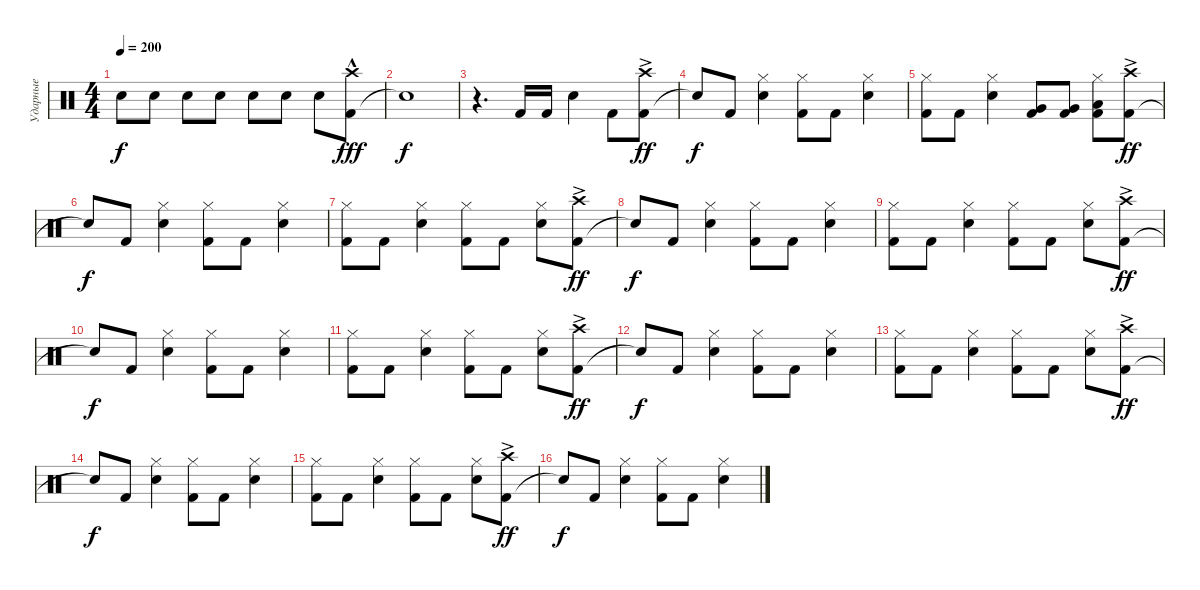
\track ("Ударные" "Ударные") {instrument percussion}
\staff {score}
\articulation defaults
\ts (4 4)
\tempo 200
\clef neutral
\ks c "Snare (hit) 2".8{dy f} "Snare (hit) 2".8 "Snare (hit) 2".8 "Snare (hit) 2".8 "Snare (hit) 2".8 "Snare (hit) 2".8 "Snare (hit) 2".8
("Kick (hit) 2" "Crash high (hit)"{hac}).8{dy fff} |
"Snare (hit)"{t}.1{dy f} |
r.4{d} "Kick (hit) 2".16 "Kick (hit) 2".16 "Snare (hit) 2".4 "Kick (hit) 2".8 ("Kick (hit) 2" "Crash high (hit)"{ac}).8{dy ff} |
"Snare (hit)"{t}.8{dy f} "Kick (hit) 2".8 ("Snare (hit) 2" "Hi-Hat (closed)").4 ("Kick (hit) 2" "Hi-Hat (closed)").8 "Kick (hit) 2".8 ("Snare (hit) 2" "Hi-Hat (closed)").4 |
("Kick (hit) 2" "Hi-Hat (closed)").8 "Kick (hit) 2".8 ("Snare (hit) 2" "Hi-Hat (closed)").4 ("Kick (hit) 2" "Very Low Tom (hit)").8 ("Kick (hit) 2" "Very Low Tom (hit)").8 ("Kick (hit) 2" "Low Floor Tom (hit)" "Hi-Hat (closed)").8 ("Kick (hit) 2" "Crash high (hit)"{ac}).8{dy ff} |
"Snare (hit)"{t}.8{dy f} "Kick (hit) 2".8 ("Snare (hit) 2" "Hi-Hat (closed)").4 ("Kick (hit) 2" "Hi-Hat (closed)").8 "Kick (hit) 2".8 ("Snare (hit) 2" "Hi-Hat (closed)").4 |
("Kick (hit) 2" "Hi-Hat (closed)").8 "Kick (hit) 2".8 ("Snare (hit) 2" "Hi-Hat (closed)").4 ("Kick (hit) 2" "Hi-Hat (closed)").8 "Kick (hit) 2".8 ("Snare (hit) 2" "Hi-Hat (closed)").8 ("Kick (hit) 2" "Crash high (hit)"{ac}).8{dy ff} |
"Snare (hit)"{t}.8{dy f} "Kick (hit) 2".8 ("Snare (hit) 2" "Hi-Hat (closed)").4 ("Kick (hit) 2" "Hi-Hat (closed)").8 "Kick (hit) 2".8 ("Snare (hit) 2" "Hi-Hat (closed)").4 |
("Kick (hit) 2" "Hi-Hat (closed)").8 "Kick (hit) 2".8 ("Snare (hit) 2" "Hi-Hat (closed)").4 ("Kick (hit) 2" "Hi-Hat (closed)").8 "Kick (hit) 2".8 ("Snare (hit) 2" "Hi-Hat (closed)").8 ("Kick (hit) 2" "Crash high (hit)"{ac}).8{dy ff} |
"Snare (hit)"{t}.8{dy f} "Kick (hit) 2".8 ("Snare (hit) 2" "Hi-Hat (closed)").4 ("Kick (hit) 2" "Hi-Hat (closed)").8 "Kick (hit) 2".8 ("Snare (hit) 2" "Hi-Hat (closed)").4 |
("Kick (hit) 2" "Hi-Hat (closed)").8 "Kick (hit) 2".8 ("Snare (hit) 2" "Hi-Hat (closed)").4 ("Kick (hit) 2" "Hi-Hat (closed)").8 "Kick (hit) 2".8 ("Snare (hit) 2" "Hi-Hat (closed)").8 ("Kick (hit) 2" "Crash high (hit)"{ac}).8{dy ff} |
"Snare (hit)"{t}.8{dy f} "Kick (hit) 2".8 ("Snare (hit) 2" "Hi-Hat (closed)").4 ("Kick (hit) 2" "Hi-Hat (closed)").8 "Kick (hit) 2".8 ("Snare (hit) 2" "Hi-Hat (closed)").4 |
("Kick (hit) 2" "Hi-Hat (closed)").8 "Kick (hit) 2".8 ("Snare (hit) 2" "Hi-Hat (closed)").4 ("Kick (hit) 2" "Hi-Hat (closed)").8 "Kick (hit) 2".8 ("Snare (hit) 2" "Hi-Hat (closed)").8 ("Kick (hit) 2" "Crash high (hit)"{ac}).8{dy ff} |
"Snare (hit)"{t}.8{dy f} "Kick (hit) 2".8 ("Snare (hit) 2" "Hi-Hat (closed)").4 ("Kick (hit) 2" "Hi-Hat (closed)").8 "Kick (hit) 2".8 ("Snare (hit) 2" "Hi-Hat (closed)").4 |
("Kick (hit) 2" "Hi-Hat (closed)").8 "Kick (hit) 2".8 ("Snare (hit) 2" "Hi-Hat (closed)").4 ("Kick (hit) 2" "Hi-Hat (closed)").8 "Kick (hit) 2".8 ("Snare (hit) 2" "Hi-Hat (closed)").8 ("Kick (hit) 2" "Crash high (hit)"{ac}).8{dy ff} |
"Snare (hit)"{t}.8{dy f} "Kick (hit) 2".8 ("Snare (hit) 2" "Hi-Hat (closed)").4 ("Kick (hit) 2" "Hi-Hat (closed)").8 "Kick (hit) 2".8 ("Snare (hit) 2" "Hi-Hat (closed)").4
